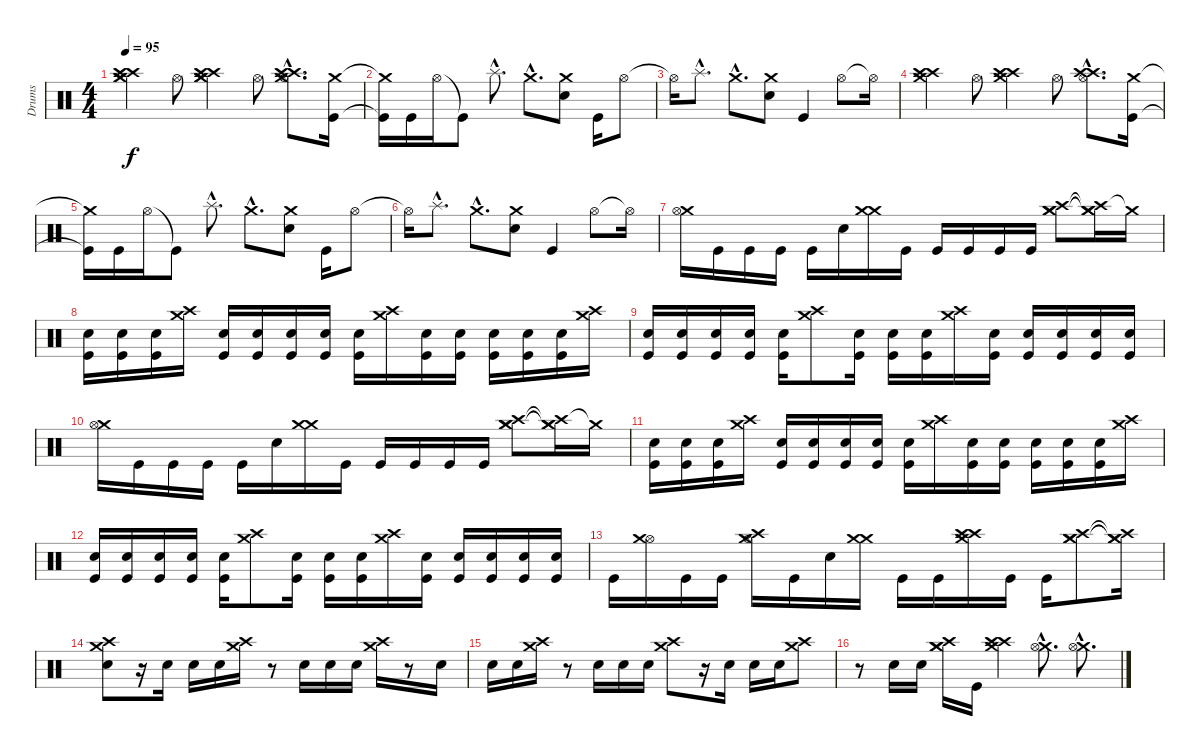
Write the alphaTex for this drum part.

\track ("Drums" "Drums") {instrument percussion}
\staff {score}
\articulation defaults
\ts (4 4)
\tempo 95
\clef neutral
\ks c
("Crash medium (hit)" "Crash high (hit)" "Crash high (hit)" "Crash medium (hit)").4{dy f} "Hi-Hat (open)".8 ("Crash medium (hit)" "Crash high (hit)" "Crash high (hit)" "Crash medium (hit)").4 "Hi-Hat (open)".8 ("Crash medium (hit)"{hac} "Crash high (hit)"{hac} "Crash high (hit)"{hac} "Hi-Hat (open)"{hac}).8{d} ("Crash medium (hit)" "Kick (hit)").16 |
("Crash medium (hit)"{t} "Kick (hit)"{t}).16 "Kick (hit)".16 "Hi-Hat (open)".16 "Kick (hit)"{t}.8 "Splash (hit)"{hac}.8{d} "Crash medium (hit)"{hac}.8{d} ("Crash medium (hit)" "Snare (hit) 2").8 "Kick (hit)".16 "Hi-Hat (open)".8 |
"Hi-Hat (open)"{t}.16 "Splash (hit)"{hac}.8{d} "Crash medium (hit)"{hac}.8{d} ("Crash medium (hit)" "Snare (hit) 2").8 "Kick (hit)".4 "Hi-Hat (open)".8 "Hi-Hat (open)"{t}.16 |
("Crash high (hit)" "Crash high (hit)" "Crash medium (hit)").4 "Hi-Hat (open)".8 ("Crash high (hit)" "Crash high (hit)" "Crash medium (hit)").4 "Hi-Hat (open)".8 ("Crash high (hit)"{hac} "Crash high (hit)"{hac} "Hi-Hat (open)"{hac}).8{d} ("Crash medium (hit)" "Kick (hit)").16 |
("Crash medium (hit)"{t} "Kick (hit)"{t}).16 "Kick (hit)".16 "Hi-Hat (open)".16 "Kick (hit)"{t}.8 "Splash (hit)"{hac}.8{d} "Crash medium (hit)"{hac}.8{d} ("Crash medium (hit)" "Snare (hit) 2").8 "Kick (hit)".16 "Hi-Hat (open)".8 |
"Hi-Hat (open)"{t}.16 "Splash (hit)"{hac}.8{d} "Crash medium (hit)"{hac}.8{d} ("Crash medium (hit)" "Snare (hit) 2").8 "Kick (hit)".4 "Hi-Hat (open)".8 "Hi-Hat (open)"{t}.16 |
("Crash medium (hit)" "Hi-Hat (open)").16 "Kick (hit)".16 "Kick (hit)".16 "Kick (hit)".16 "Kick (hit)".16 "Snare (hit) 2".16 ("Crash medium (hit)" "Crash medium (hit)").16 "Kick (hit)".16 "Kick (hit)".16 "Kick (hit)".16 "Kick (hit)".16 "Kick (hit)".16 ("Crash high (hit)" "Crash medium (hit)" "Crash medium (hit)").8 ("Crash high (hit)"{t} "Crash medium (hit)"{t} "Crash medium (hit)"{t}).16 "Crash medium (hit)"{t}.16 |
("Kick (hit)" "Snare (hit) 2").16 ("Kick (hit)" "Snare (hit) 2").16 ("Kick (hit)" "Snare (hit) 2").16 ("Crash high (hit)" "Crash medium (hit)").16 ("Kick (hit)" "Snare (hit) 2").16 ("Kick (hit)" "Snare (hit) 2").16 ("Kick (hit)" "Snare (hit) 2").16 ("Kick (hit)" "Snare (hit) 2").16 ("Kick (hit)" "Snare (hit) 2").16 ("Crash high (hit)" "Crash medium (hit)").16 ("Kick (hit)" "Snare (hit) 2").16 ("Kick (hit)" "Snare (hit) 2").16 ("Kick (hit)" "Snare (hit) 2").16 ("Kick (hit)" "Snare (hit) 2").16 ("Kick (hit)" "Snare (hit) 2").16 ("Crash high (hit)" "Crash medium (hit)").16 |
("Kick (hit)" "Snare (hit) 2").16 ("Kick (hit)" "Snare (hit) 2").16 ("Kick (hit)" "Snare (hit) 2").16 ("Kick (hit)" "Snare (hit) 2").16 ("Kick (hit)" "Snare (hit) 2").16 ("Crash high (hit)" "Crash medium (hit)").8 ("Kick (hit)" "Snare (hit) 2").16 ("Kick (hit)" "Snare (hit) 2").16 ("Kick (hit)" "Snare (hit) 2").16 ("Crash high (hit)" "Crash medium (hit)").16 ("Kick (hit)" "Snare (hit) 2").16 ("Kick (hit)" "Snare (hit) 2").16 ("Kick (hit)" "Snare (hit) 2").16 ("Kick (hit)" "Snare (hit) 2").16 ("Kick (hit)" "Snare (hit) 2").16 |
("Crash medium (hit)" "Hi-Hat (open)").16 "Kick (hit)".16 "Kick (hit)".16 "Kick (hit)".16 "Kick (hit)".16 "Snare (hit) 2".16 ("Crash medium (hit)" "Crash medium (hit)").16 "Kick (hit)".16 "Kick (hit)".16 "Kick (hit)".16 "Kick (hit)".16 "Kick (hit)".16 ("Crash high (hit)" "Crash medium (hit)" "Crash medium (hit)").8 ("Crash high (hit)"{t} "Crash medium (hit)"{t} "Crash medium (hit)"{t}).16 "Crash medium (hit)"{t}.16 |
("Kick (hit)" "Snare (hit) 2").16 ("Kick (hit)" "Snare (hit) 2").16 ("Kick (hit)" "Snare (hit) 2").16 ("Crash high (hit)" "Crash medium (hit)").16 ("Kick (hit)" "Snare (hit) 2").16 ("Kick (hit)" "Snare (hit) 2").16 ("Kick (hit)" "Snare (hit) 2").16 ("Kick (hit)" "Snare (hit) 2").16 ("Kick (hit)" "Snare (hit) 2").16 ("Crash high (hit)" "Crash medium (hit)").16 ("Kick (hit)" "Snare (hit) 2").16 ("Kick (hit)" "Snare (hit) 2").16 ("Kick (hit)" "Snare (hit) 2").16 ("Kick (hit)" "Snare (hit) 2").16 ("Kick (hit)" "Snare (hit) 2").16 ("Crash high (hit)" "Crash medium (hit)").16 |
("Kick (hit)" "Snare (hit) 2").16 ("Kick (hit)" "Snare (hit) 2").16 ("Kick (hit)" "Snare (hit) 2").16 ("Kick (hit)" "Snare (hit) 2").16 ("Kick (hit)" "Snare (hit) 2").16 ("Crash high (hit)" "Crash medium (hit)").8 ("Kick (hit)" "Snare (hit) 2").16 ("Kick (hit)" "Snare (hit) 2").16 ("Kick (hit)" "Snare (hit) 2").16 ("Crash high (hit)" "Crash medium (hit)").16 ("Kick (hit)" "Snare (hit) 2").16 ("Kick (hit)" "Snare (hit) 2").16 ("Kick (hit)" "Snare (hit) 2").16 ("Kick (hit)" "Snare (hit) 2").16 ("Kick (hit)" "Snare (hit) 2").16 |
"Kick (hit)".16 ("Hi-Hat (open)" "Crash medium (hit)").16 "Kick (hit)".16 "Kick (hit)".16 ("Crash high (hit)" "Hi-Hat (open)" "Crash medium (hit)").16 "Kick (hit)".16 "Snare (hit) 2".16 ("Crash medium (hit)" "Crash medium (hit)").16 "Kick (hit)".16 "Kick (hit)".16 ("Crash high (hit)" "Crash high (hit)" "Crash medium (hit)").16 "Kick (hit)".16 "Kick (hit)".16 ("Crash high (hit)" "Crash medium (hit)" "Crash medium (hit)").8 ("Crash high (hit)"{t} "Crash medium (hit)"{t} "Crash medium (hit)"{t}).16 |
("Crash high (hit)" "Snare (hit) 2" "Crash medium (hit)").8 r.16 "Snare (hit) 2".16 "Snare (hit) 2".16 "Snare (hit) 2".16 ("Crash high (hit)" "Crash medium (hit)").16 r.8 "Snare (hit) 2".16 "Snare (hit) 2".16 "Snare (hit) 2".16 ("Crash high (hit)" "Crash medium (hit)").16 r.8 "Snare (hit) 2".16 |
"Snare (hit) 2".16 "Snare (hit) 2".16 ("Crash high (hit)" "Crash medium (hit)").16 r.8 "Snare (hit) 2".16 "Snare (hit) 2".16 "Snare (hit) 2".16 ("Crash medium (hit)" "Crash high (hit)").8 r.16 "Snare (hit) 2".16 "Snare (hit) 2".16 "Snare (hit) 2".16 ("Crash high (hit)" "Crash medium (hit)").8 |
r.8 "Snare (hit) 2".16 "Snare (hit) 2".16 ("Crash high (hit)" "Crash medium (hit)" "Crash medium (hit)").16 "Kick (hit)".16 ("Crash high (hit)" "Crash high (hit)" "Crash medium (hit)").4 ("Crash medium (hit)"{hac} "Hi-Hat (open)"{hac}).8{d} ("Crash medium (hit)"{hac} "Hi-Hat (open)"{hac}).8{d}
